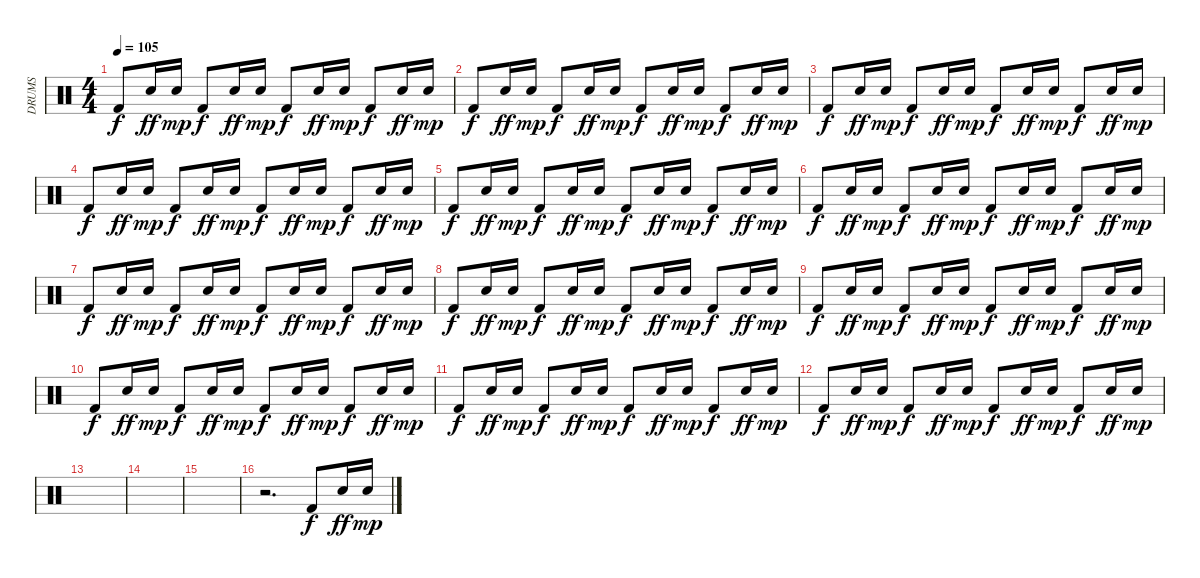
\track ("DRUMS" "DRUMS") {instrument percussion}
\staff {score}
\articulation defaults
\ts (4 4)
\tempo 105
\clef neutral
\ks c "Kick (hit) 2".8{dy f} "Snare (hit) 2".16{dy ff} "Snare (hit) 2".16{dy mp} "Kick (hit) 2".8{dy f} "Snare (hit) 2".16{dy ff} "Snare (hit) 2".16{dy mp} "Kick (hit) 2".8{dy f} "Snare (hit) 2".16{dy ff} "Snare (hit) 2".16{dy mp} "Kick (hit) 2".8{dy f} "Snare (hit) 2".16{dy ff} "Snare (hit) 2".16{dy mp}
|
"Kick (hit) 2".8{dy f} "Snare (hit) 2".16{dy ff} "Snare (hit) 2".16{dy mp} "Kick (hit) 2".8{dy f} "Snare (hit) 2".16{dy ff} "Snare (hit) 2".16{dy mp} "Kick (hit) 2".8{dy f} "Snare (hit) 2".16{dy ff} "Snare (hit) 2".16{dy mp} "Kick (hit) 2".8{dy f} "Snare (hit) 2".16{dy ff} "Snare (hit) 2".16{dy mp} |
"Kick (hit) 2".8{dy f} "Snare (hit) 2".16{dy ff} "Snare (hit) 2".16{dy mp} "Kick (hit) 2".8{dy f} "Snare (hit) 2".16{dy ff} "Snare (hit) 2".16{dy mp} "Kick (hit) 2".8{dy f} "Snare (hit) 2".16{dy ff} "Snare (hit) 2".16{dy mp} "Kick (hit) 2".8{dy f} "Snare (hit) 2".16{dy ff} "Snare (hit) 2".16{dy mp} |
"Kick (hit) 2".8{dy f} "Snare (hit) 2".16{dy ff} "Snare (hit) 2".16{dy mp} "Kick (hit) 2".8{dy f} "Snare (hit) 2".16{dy ff} "Snare (hit) 2".16{dy mp} "Kick (hit) 2".8{dy f} "Snare (hit) 2".16{dy ff} "Snare (hit) 2".16{dy mp} "Kick (hit) 2".8{dy f} "Snare (hit) 2".16{dy ff} "Snare (hit) 2".16{dy mp} |
"Kick (hit) 2".8{dy f} "Snare (hit) 2".16{dy ff} "Snare (hit) 2".16{dy mp} "Kick (hit) 2".8{dy f} "Snare (hit) 2".16{dy ff} "Snare (hit) 2".16{dy mp} "Kick (hit) 2".8{dy f} "Snare (hit) 2".16{dy ff} "Snare (hit) 2".16{dy mp} "Kick (hit) 2".8{dy f} "Snare (hit) 2".16{dy ff} "Snare (hit) 2".16{dy mp} |
"Kick (hit) 2".8{dy f} "Snare (hit) 2".16{dy ff} "Snare (hit) 2".16{dy mp} "Kick (hit) 2".8{dy f} "Snare (hit) 2".16{dy ff} "Snare (hit) 2".16{dy mp} "Kick (hit) 2".8{dy f} "Snare (hit) 2".16{dy ff} "Snare (hit) 2".16{dy mp} "Kick (hit) 2".8{dy f} "Snare (hit) 2".16{dy ff} "Snare (hit) 2".16{dy mp} |
"Kick (hit) 2".8{dy f} "Snare (hit) 2".16{dy ff} "Snare (hit) 2".16{dy mp} "Kick (hit) 2".8{dy f} "Snare (hit) 2".16{dy ff} "Snare (hit) 2".16{dy mp} "Kick (hit) 2".8{dy f} "Snare (hit) 2".16{dy ff} "Snare (hit) 2".16{dy mp} "Kick (hit) 2".8{dy f} "Snare (hit) 2".16{dy ff} "Snare (hit) 2".16{dy mp} |
"Kick (hit) 2".8{dy f} "Snare (hit) 2".16{dy ff} "Snare (hit) 2".16{dy mp} "Kick (hit) 2".8{dy f} "Snare (hit) 2".16{dy ff} "Snare (hit) 2".16{dy mp} "Kick (hit) 2".8{dy f} "Snare (hit) 2".16{dy ff} "Snare (hit) 2".16{dy mp} "Kick (hit) 2".8{dy f} "Snare (hit) 2".16{dy ff} "Snare (hit) 2".16{dy mp} |
"Kick (hit) 2".8{dy f} "Snare (hit) 2".16{dy ff} "Snare (hit) 2".16{dy mp} "Kick (hit) 2".8{dy f} "Snare (hit) 2".16{dy ff} "Snare (hit) 2".16{dy mp} "Kick (hit) 2".8{dy f} "Snare (hit) 2".16{dy ff} "Snare (hit) 2".16{dy mp} "Kick (hit) 2".8{dy f} "Snare (hit) 2".16{dy ff} "Snare (hit) 2".16{dy mp} |
"Kick (hit) 2".8{dy f} "Snare (hit) 2".16{dy ff} "Snare (hit) 2".16{dy mp} "Kick (hit) 2".8{dy f} "Snare (hit) 2".16{dy ff} "Snare (hit) 2".16{dy mp} "Kick (hit) 2".8{dy f} "Snare (hit) 2".16{dy ff} "Snare (hit) 2".16{dy mp} "Kick (hit) 2".8{dy f} "Snare (hit) 2".16{dy ff} "Snare (hit) 2".16{dy mp} |
"Kick (hit) 2".8{dy f} "Snare (hit) 2".16{dy ff} "Snare (hit) 2".16{dy mp} "Kick (hit) 2".8{dy f} "Snare (hit) 2".16{dy ff} "Snare (hit) 2".16{dy mp} "Kick (hit) 2".8{dy f} "Snare (hit) 2".16{dy ff} "Snare (hit) 2".16{dy mp} "Kick (hit) 2".8{dy f} "Snare (hit) 2".16{dy ff} "Snare (hit) 2".16{dy mp} |
"Kick (hit) 2".8{dy f} "Snare (hit) 2".16{dy ff} "Snare (hit) 2".16{dy mp} "Kick (hit) 2".8{dy f} "Snare (hit) 2".16{dy ff} "Snare (hit) 2".16{dy mp} "Kick (hit) 2".8{dy f} "Snare (hit) 2".16{dy ff} "Snare (hit) 2".16{dy mp} "Kick (hit) 2".8{dy f} "Snare (hit) 2".16{dy ff} "Snare (hit) 2".16{dy mp} |
|
|
|
r.2{d} "Kick (hit) 2".8{dy f} "Snare (hit) 2".16{dy ff} "Snare (hit) 2".16{dy mp}
